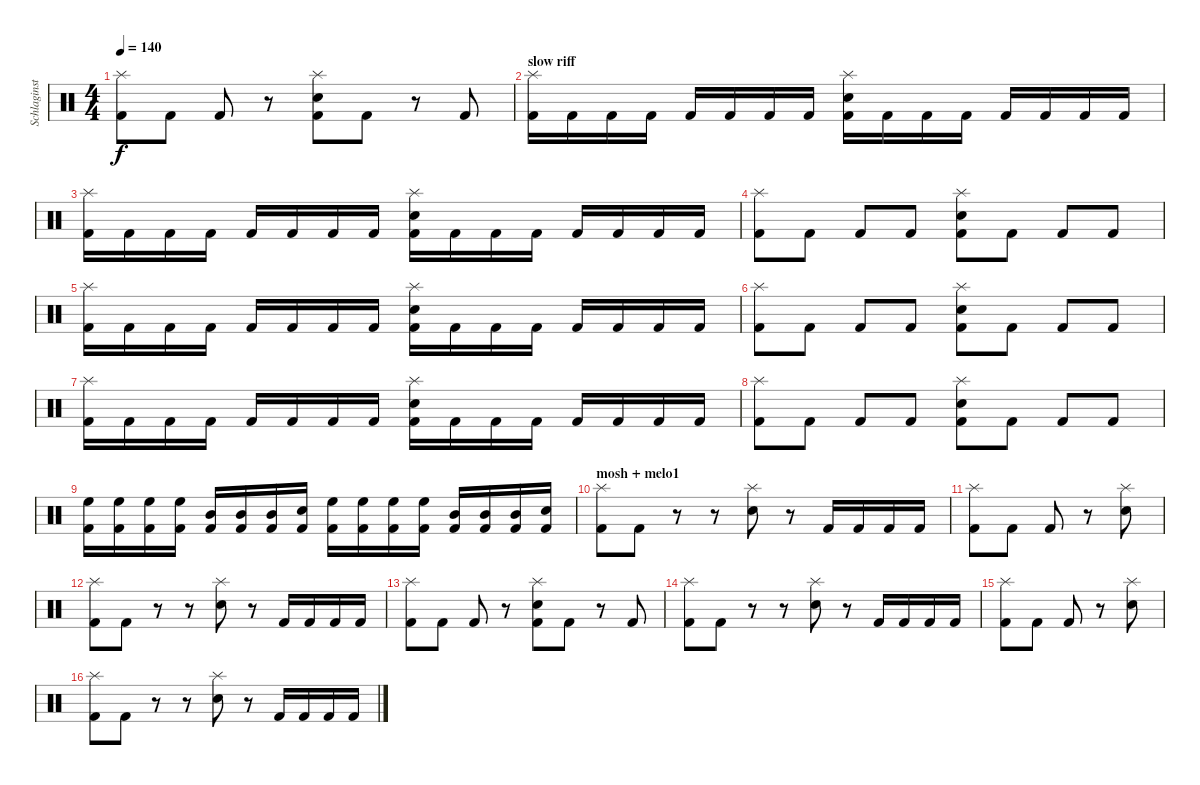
\track ("Schlaginstrumente - Auswahl" "Schlaginst") {instrument percussion}
\staff {score}
\articulation defaults
\ts (4 4)
\tempo 140
\clef neutral
\ks c
("Splash (hit)" "Kick (hit) 2").8{dy f} "Kick (hit) 2".8 "Kick (hit) 2".8 r.8 ("Electric Snare (hit)" "Splash (hit)" "Kick (hit) 2").8 "Kick (hit) 2".8 r.8 "Kick (hit) 2".8 |
\section ("" "slow riff")
("Splash (hit)" "Kick (hit) 2").16 "Kick (hit) 2".16 "Kick (hit) 2".16 "Kick (hit) 2".16 "Kick (hit) 2".16 "Kick (hit) 2".16 "Kick (hit) 2".16 "Kick (hit) 2".16 ("Electric Snare (hit)" "Splash (hit)" "Kick (hit) 2").16 "Kick (hit) 2".16 "Kick (hit) 2".16 "Kick (hit) 2".16 "Kick (hit) 2".16 "Kick (hit) 2".16 "Kick (hit) 2".16 "Kick (hit) 2".16 |
("Splash (hit)" "Kick (hit) 2").16 "Kick (hit) 2".16 "Kick (hit) 2".16 "Kick (hit) 2".16 "Kick (hit) 2".16 "Kick (hit) 2".16 "Kick (hit) 2".16 "Kick (hit) 2".16 ("Electric Snare (hit)" "Splash (hit)" "Kick (hit) 2").16 "Kick (hit) 2".16 "Kick (hit) 2".16 "Kick (hit) 2".16 "Kick (hit) 2".16 "Kick (hit) 2".16 "Kick (hit) 2".16 "Kick (hit) 2".16 |
("Splash (hit)" "Kick (hit) 2").8 "Kick (hit) 2".8 "Kick (hit) 2".8 "Kick (hit) 2".8 ("Electric Snare (hit)" "Splash (hit)" "Kick (hit) 2").8 "Kick (hit) 2".8 "Kick (hit) 2".8 "Kick (hit) 2".8 |
("Splash (hit)" "Kick (hit) 2").16 "Kick (hit) 2".16 "Kick (hit) 2".16 "Kick (hit) 2".16 "Kick (hit) 2".16 "Kick (hit) 2".16 "Kick (hit) 2".16 "Kick (hit) 2".16 ("Electric Snare (hit)" "Splash (hit)" "Kick (hit) 2").16 "Kick (hit) 2".16 "Kick (hit) 2".16 "Kick (hit) 2".16 "Kick (hit) 2".16 "Kick (hit) 2".16 "Kick (hit) 2".16 "Kick (hit) 2".16 |
("Splash (hit)" "Kick (hit) 2").8 "Kick (hit) 2".8 "Kick (hit) 2".8 "Kick (hit) 2".8 ("Electric Snare (hit)" "Splash (hit)" "Kick (hit) 2").8 "Kick (hit) 2".8 "Kick (hit) 2".8 "Kick (hit) 2".8 |
("Splash (hit)" "Kick (hit) 2").16 "Kick (hit) 2".16 "Kick (hit) 2".16 "Kick (hit) 2".16 "Kick (hit) 2".16 "Kick (hit) 2".16 "Kick (hit) 2".16 "Kick (hit) 2".16 ("Electric Snare (hit)" "Splash (hit)" "Kick (hit) 2").16 "Kick (hit) 2".16 "Kick (hit) 2".16 "Kick (hit) 2".16 "Kick (hit) 2".16 "Kick (hit) 2".16 "Kick (hit) 2".16 "Kick (hit) 2".16 |
("Splash (hit)" "Kick (hit) 2").8 "Kick (hit) 2".8 "Kick (hit) 2".8 "Kick (hit) 2".8 ("Electric Snare (hit)" "Splash (hit)" "Kick (hit) 2").8 "Kick (hit) 2".8 "Kick (hit) 2".8 "Kick (hit) 2".8 |
("High Floor Tom (hit)" "Kick (hit) 2").16 ("High Floor Tom (hit)" "Kick (hit) 2").16 ("High Floor Tom (hit)" "Kick (hit) 2").16 ("High Floor Tom (hit)" "Kick (hit) 2").16 ("Mid Tom (hit)" "Kick (hit) 2").16 ("Mid Tom (hit)" "Kick (hit) 2").16 ("Mid Tom (hit)" "Kick (hit) 2").16 ("Electric Snare (hit)" "Kick (hit) 2").16 ("High Floor Tom (hit)" "Kick (hit) 2").16 ("High Floor Tom (hit)" "Kick (hit) 2").16 ("High Floor Tom (hit)" "Kick (hit) 2").16 ("High Floor Tom (hit)" "Kick (hit) 2").16 ("Mid Tom (hit)" "Kick (hit) 2").16 ("Mid Tom (hit)" "Kick (hit) 2").16 ("Mid Tom (hit)" "Kick (hit) 2").16 ("Electric Snare (hit)" "Kick (hit) 2").16 |
\section ("" "mosh + melo1")
("Splash (hit)" "Kick (hit) 2").8 "Kick (hit) 2".8 r.8 r.8 ("Electric Snare (hit)" "Splash (hit)").8 r.8 "Kick (hit) 2".16 "Kick (hit) 2".16 "Kick (hit) 2".16 "Kick (hit) 2".16 |
("Splash (hit)" "Kick (hit) 2").8 "Kick (hit) 2".8 "Kick (hit) 2".8 r.8 ("Electric Snare (hit)" "Splash (hit)").8 |
("Splash (hit)" "Kick (hit) 2").8 "Kick (hit) 2".8 r.8 r.8 ("Electric Snare (hit)" "Splash (hit)").8 r.8 "Kick (hit) 2".16 "Kick (hit) 2".16 "Kick (hit) 2".16 "Kick (hit) 2".16 |
("Splash (hit)" "Kick (hit) 2").8 "Kick (hit) 2".8 "Kick (hit) 2".8 r.8 ("Electric Snare (hit)" "Splash (hit)" "Kick (hit) 2").8 "Kick (hit) 2".8 r.8 "Kick (hit) 2".8 |
("Splash (hit)" "Kick (hit) 2").8 "Kick (hit) 2".8 r.8 r.8 ("Electric Snare (hit)" "Splash (hit)").8 r.8 "Kick (hit) 2".16 "Kick (hit) 2".16 "Kick (hit) 2".16 "Kick (hit) 2".16 |
("Splash (hit)" "Kick (hit) 2").8 "Kick (hit) 2".8 "Kick (hit) 2".8 r.8 ("Electric Snare (hit)" "Splash (hit)").8 |
("Splash (hit)" "Kick (hit) 2").8 "Kick (hit) 2".8 r.8 r.8 ("Electric Snare (hit)" "Splash (hit)").8 r.8 "Kick (hit) 2".16 "Kick (hit) 2".16 "Kick (hit) 2".16 "Kick (hit) 2".16
